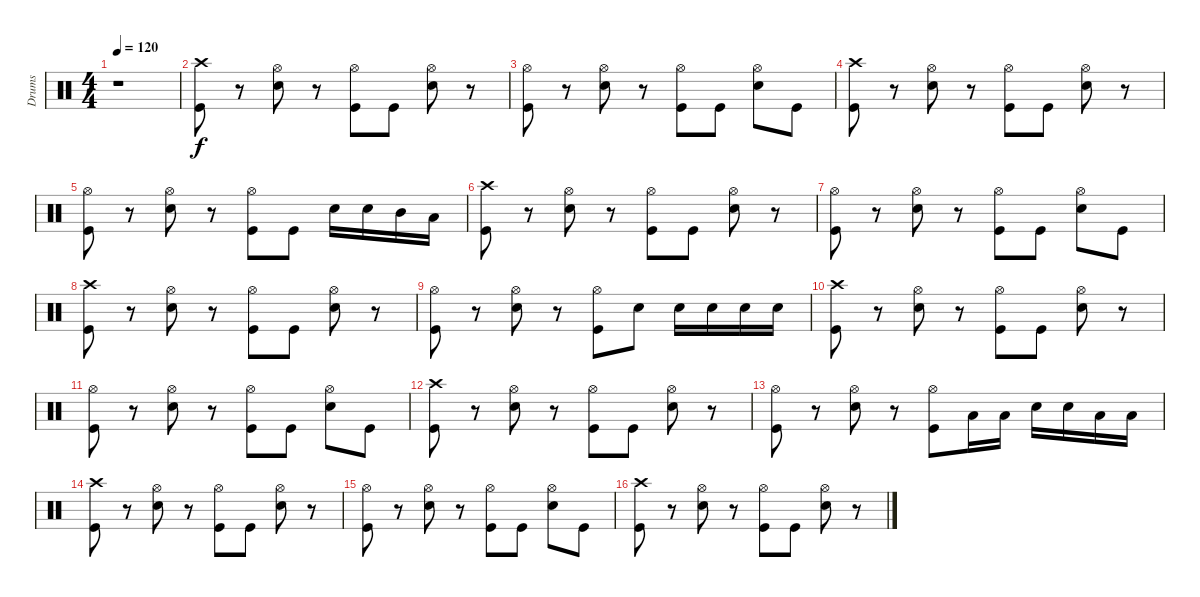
\track ("Drums" "Drums") {instrument percussion}
\staff {score}
\articulation defaults
\ts (4 4)
\tempo 120
\clef neutral
\ks c
r.1{dy f} |
("Crash high (hit)" "Kick (hit)").8 r.8 ("Hi-Hat (open)" "Snare (hit) 2").8 r.8 ("Hi-Hat (open)" "Kick (hit)").8 "Kick (hit)".8 ("Hi-Hat (open)" "Snare (hit) 2").8 r.8 |
("Hi-Hat (open)" "Kick (hit)").8 r.8 ("Hi-Hat (open)" "Snare (hit) 2").8 r.8 ("Hi-Hat (open)" "Kick (hit)").8 "Kick (hit)".8 ("Hi-Hat (open)" "Snare (hit) 2").8 "Kick (hit)".8 |
("Crash high (hit)" "Kick (hit)").8 r.8 ("Hi-Hat (open)" "Snare (hit) 2").8 r.8 ("Hi-Hat (open)" "Kick (hit)").8 "Kick (hit)".8 ("Hi-Hat (open)" "Snare (hit) 2").8 r.8 |
("Hi-Hat (open)" "Kick (hit)").8 r.8 ("Hi-Hat (open)" "Snare (hit) 2").8 r.8 ("Hi-Hat (open)" "Kick (hit)").8 "Kick (hit)".8 "Snare (hit) 2".16 "Snare (hit) 2".16 "Mid Tom (hit)".16 "Low Tom (hit)".16 |
("Crash high (hit)" "Kick (hit)").8 r.8 ("Hi-Hat (open)" "Snare (hit) 2").8 r.8 ("Hi-Hat (open)" "Kick (hit)").8 "Kick (hit)".8 ("Hi-Hat (open)" "Snare (hit) 2").8 r.8 |
("Hi-Hat (open)" "Kick (hit)").8 r.8 ("Hi-Hat (open)" "Snare (hit) 2").8 r.8 ("Hi-Hat (open)" "Kick (hit)").8 "Kick (hit)".8 ("Hi-Hat (open)" "Snare (hit) 2").8 "Kick (hit)".8 |
("Crash high (hit)" "Kick (hit)").8 r.8 ("Hi-Hat (open)" "Snare (hit) 2").8 r.8 ("Hi-Hat (open)" "Kick (hit)").8 "Kick (hit)".8 ("Hi-Hat (open)" "Snare (hit) 2").8 r.8 |
("Hi-Hat (open)" "Kick (hit)").8 r.8 ("Hi-Hat (open)" "Snare (hit) 2").8 r.8 ("Kick (hit)" "Hi-Hat (open)").8 "Snare (hit) 2".8 "Snare (hit) 2".16 "Snare (hit) 2".16 "Snare (hit) 2".16 "Snare (hit) 2".16 |
("Crash high (hit)" "Kick (hit)").8 r.8 ("Hi-Hat (open)" "Snare (hit) 2").8 r.8 ("Hi-Hat (open)" "Kick (hit)").8 "Kick (hit)".8 ("Hi-Hat (open)" "Snare (hit) 2").8 r.8 |
("Hi-Hat (open)" "Kick (hit)").8 r.8 ("Hi-Hat (open)" "Snare (hit) 2").8 r.8 ("Hi-Hat (open)" "Kick (hit)").8 "Kick (hit)".8 ("Hi-Hat (open)" "Snare (hit) 2").8 "Kick (hit)".8 |
("Crash high (hit)" "Kick (hit)").8 r.8 ("Hi-Hat (open)" "Snare (hit) 2").8 r.8 ("Hi-Hat (open)" "Kick (hit)").8 "Kick (hit)".8 ("Hi-Hat (open)" "Snare (hit) 2").8 r.8 |
("Hi-Hat (open)" "Kick (hit)").8 r.8 ("Hi-Hat (open)" "Snare (hit) 2").8 r.8 ("Hi-Hat (open)" "Kick (hit)").8 "Low Tom (hit)".16 "Low Tom (hit)".16 "Snare (hit) 2".16 "Snare (hit) 2".16 "Low Tom (hit)".16 "Low Tom (hit)".16 |
("Crash high (hit)" "Kick (hit)").8 r.8 ("Hi-Hat (open)" "Snare (hit) 2").8 r.8 ("Hi-Hat (open)" "Kick (hit)").8 "Kick (hit)".8 ("Hi-Hat (open)" "Snare (hit) 2").8 r.8 |
("Hi-Hat (open)" "Kick (hit)").8 r.8 ("Hi-Hat (open)" "Snare (hit) 2").8 r.8 ("Hi-Hat (open)" "Kick (hit)").8 "Kick (hit)".8 ("Hi-Hat (open)" "Snare (hit) 2").8 "Kick (hit)".8 |
("Crash high (hit)" "Kick (hit)").8 r.8 ("Hi-Hat (open)" "Snare (hit) 2").8 r.8 ("Hi-Hat (open)" "Kick (hit)").8 "Kick (hit)".8 ("Hi-Hat (open)" "Snare (hit) 2").8 r.8
